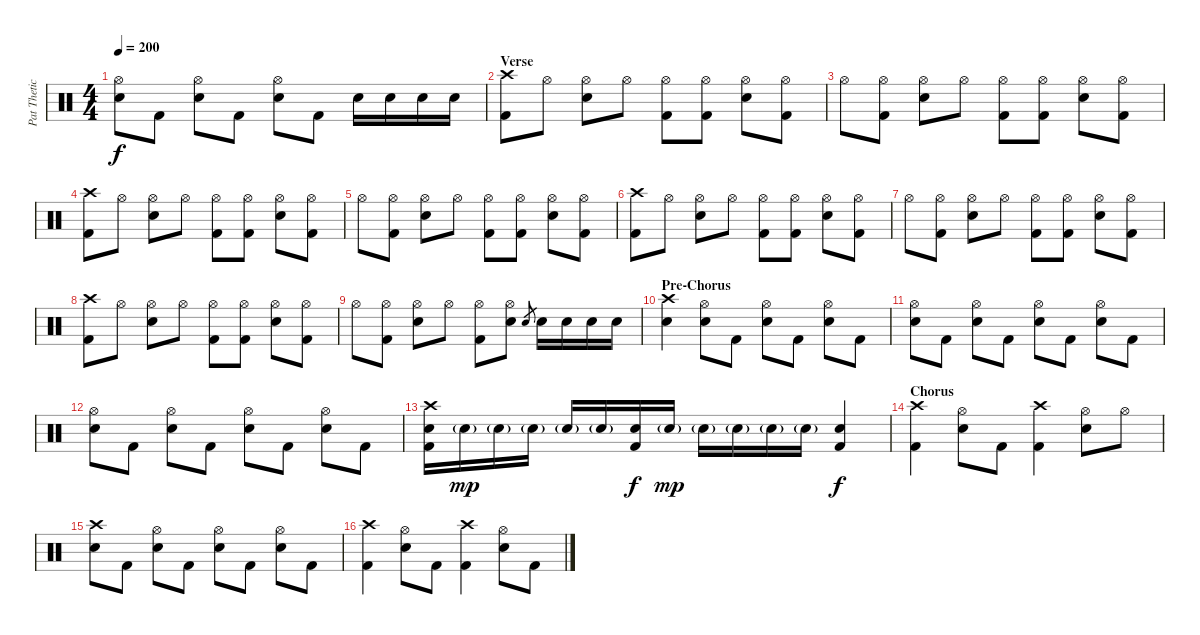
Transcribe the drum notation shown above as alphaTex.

\track ("Pat Thetic (Drums)" "Pat Thetic") {instrument percussion}
\staff {score}
\articulation defaults
\ts (4 4)
\tempo 200
\clef neutral
\ks c
("Hi-Hat (open)" "Electric Snare (hit)").8{dy f} "Kick (hit) 2".8 ("Hi-Hat (open)" "Electric Snare (hit)").8 "Kick (hit) 2".8 ("Hi-Hat (open)" "Electric Snare (hit)").8 "Kick (hit) 2".8 "Electric Snare (hit)".16 "Electric Snare (hit)".16 "Electric Snare (hit)".16 "Electric Snare (hit)".16 |
\section ("" "Verse")
("Crash high (hit)" "Kick (hit) 2").8 "Hi-Hat (open)".8 ("Hi-Hat (open)" "Electric Snare (hit)").8 "Hi-Hat (open)".8 ("Hi-Hat (open)" "Kick (hit) 2").8 ("Hi-Hat (open)" "Kick (hit) 2").8 ("Hi-Hat (open)" "Electric Snare (hit)").8 ("Hi-Hat (open)" "Kick (hit) 2").8 |
"Hi-Hat (open)".8 ("Hi-Hat (open)" "Kick (hit) 2").8 ("Hi-Hat (open)" "Electric Snare (hit)").8 "Hi-Hat (open)".8 ("Hi-Hat (open)" "Kick (hit) 2").8 ("Hi-Hat (open)" "Kick (hit) 2").8 ("Hi-Hat (open)" "Electric Snare (hit)").8 ("Hi-Hat (open)" "Kick (hit) 2").8 |
("Crash high (hit)" "Kick (hit) 2").8 "Hi-Hat (open)".8 ("Hi-Hat (open)" "Electric Snare (hit)").8 "Hi-Hat (open)".8 ("Hi-Hat (open)" "Kick (hit) 2").8 ("Hi-Hat (open)" "Kick (hit) 2").8 ("Hi-Hat (open)" "Electric Snare (hit)").8 ("Hi-Hat (open)" "Kick (hit) 2").8 |
"Hi-Hat (open)".8 ("Hi-Hat (open)" "Kick (hit) 2").8 ("Hi-Hat (open)" "Electric Snare (hit)").8 "Hi-Hat (open)".8 ("Hi-Hat (open)" "Kick (hit) 2").8 ("Hi-Hat (open)" "Kick (hit) 2").8 ("Hi-Hat (open)" "Electric Snare (hit)").8 ("Hi-Hat (open)" "Kick (hit) 2").8 |
("Crash high (hit)" "Kick (hit) 2").8 "Hi-Hat (open)".8 ("Hi-Hat (open)" "Electric Snare (hit)").8 "Hi-Hat (open)".8 ("Hi-Hat (open)" "Kick (hit) 2").8 ("Hi-Hat (open)" "Kick (hit) 2").8 ("Hi-Hat (open)" "Electric Snare (hit)").8 ("Hi-Hat (open)" "Kick (hit) 2").8 |
"Hi-Hat (open)".8 ("Hi-Hat (open)" "Kick (hit) 2").8 ("Hi-Hat (open)" "Electric Snare (hit)").8 "Hi-Hat (open)".8 ("Hi-Hat (open)" "Kick (hit) 2").8 ("Hi-Hat (open)" "Kick (hit) 2").8 ("Hi-Hat (open)" "Electric Snare (hit)").8 ("Hi-Hat (open)" "Kick (hit) 2").8 |
("Crash high (hit)" "Kick (hit) 2").8 "Hi-Hat (open)".8 ("Hi-Hat (open)" "Electric Snare (hit)").8 "Hi-Hat (open)".8 ("Hi-Hat (open)" "Kick (hit) 2").8 ("Hi-Hat (open)" "Kick (hit) 2").8 ("Hi-Hat (open)" "Electric Snare (hit)").8 ("Hi-Hat (open)" "Kick (hit) 2").8 |
"Hi-Hat (open)".8 ("Hi-Hat (open)" "Kick (hit) 2").8 ("Hi-Hat (open)" "Electric Snare (hit)").8 "Hi-Hat (open)".8 ("Hi-Hat (open)" "Kick (hit) 2").8 ("Hi-Hat (open)" "Electric Snare (hit)").8 "Electric Snare (hit)".8{gr} "Electric Snare (hit)".16 "Electric Snare (hit)".16 "Electric Snare (hit)".16 "Electric Snare (hit)".16 |
\section ("" "Pre-Chorus")
("Crash high (hit)" "Electric Snare (hit)").4 ("Hi-Hat (open)" "Electric Snare (hit)").8 "Kick (hit) 2".8 ("Hi-Hat (open)" "Electric Snare (hit)").8 "Kick (hit) 2".8 ("Hi-Hat (open)" "Electric Snare (hit)").8 "Kick (hit) 2".8 |
("Hi-Hat (open)" "Electric Snare (hit)").8 "Kick (hit) 2".8 ("Hi-Hat (open)" "Electric Snare (hit)").8 "Kick (hit) 2".8 ("Hi-Hat (open)" "Electric Snare (hit)").8 "Kick (hit) 2".8 ("Hi-Hat (open)" "Electric Snare (hit)").8 "Kick (hit) 2".8 |
("Hi-Hat (open)" "Electric Snare (hit)").8 "Kick (hit) 2".8 ("Hi-Hat (open)" "Electric Snare (hit)").8 "Kick (hit) 2".8 ("Hi-Hat (open)" "Electric Snare (hit)").8 "Kick (hit) 2".8 ("Hi-Hat (open)" "Electric Snare (hit)").8 "Kick (hit) 2".8 |
("Crash high (hit)" "Electric Snare (hit)" "Kick (hit) 2").16 "Electric Snare (hit)"{g}.16{dy mp} "Electric Snare (hit)"{g}.16 "Electric Snare (hit)"{g}.16 "Electric Snare (hit)"{g}.16 "Electric Snare (hit)"{g}.16 ("Electric Snare (hit)" "Kick (hit) 2").16{dy f} "Electric Snare (hit)"{g}.16{dy mp} "Electric Snare (hit)"{g}.16 "Electric Snare (hit)"{g}.16 "Electric Snare (hit)"{g}.16 "Electric Snare (hit)"{g}.16 ("Electric Snare (hit)" "Kick (hit) 2").4{dy f} |
\section ("" "Chorus")
("Crash high (hit)" "Kick (hit) 2").4 ("Hi-Hat (open)" "Electric Snare (hit)").8 "Kick (hit) 2".8 ("Crash high (hit)" "Kick (hit) 2").4 ("Hi-Hat (open)" "Electric Snare (hit)").8 "Hi-Hat (open)".8 |
("Crash high (hit)" "Electric Snare (hit)").8 "Kick (hit) 2".8 ("Hi-Hat (open)" "Electric Snare (hit)").8 "Kick (hit) 2".8 ("Hi-Hat (open)" "Electric Snare (hit)").8 "Kick (hit) 2".8 ("Hi-Hat (open)" "Electric Snare (hit)").8 "Kick (hit) 2".8 |
("Crash high (hit)" "Kick (hit) 2").4 ("Hi-Hat (open)" "Electric Snare (hit)").8 "Kick (hit) 2".8 ("Crash high (hit)" "Kick (hit) 2").4 ("Hi-Hat (open)" "Electric Snare (hit)").8 "Kick (hit) 2".8
